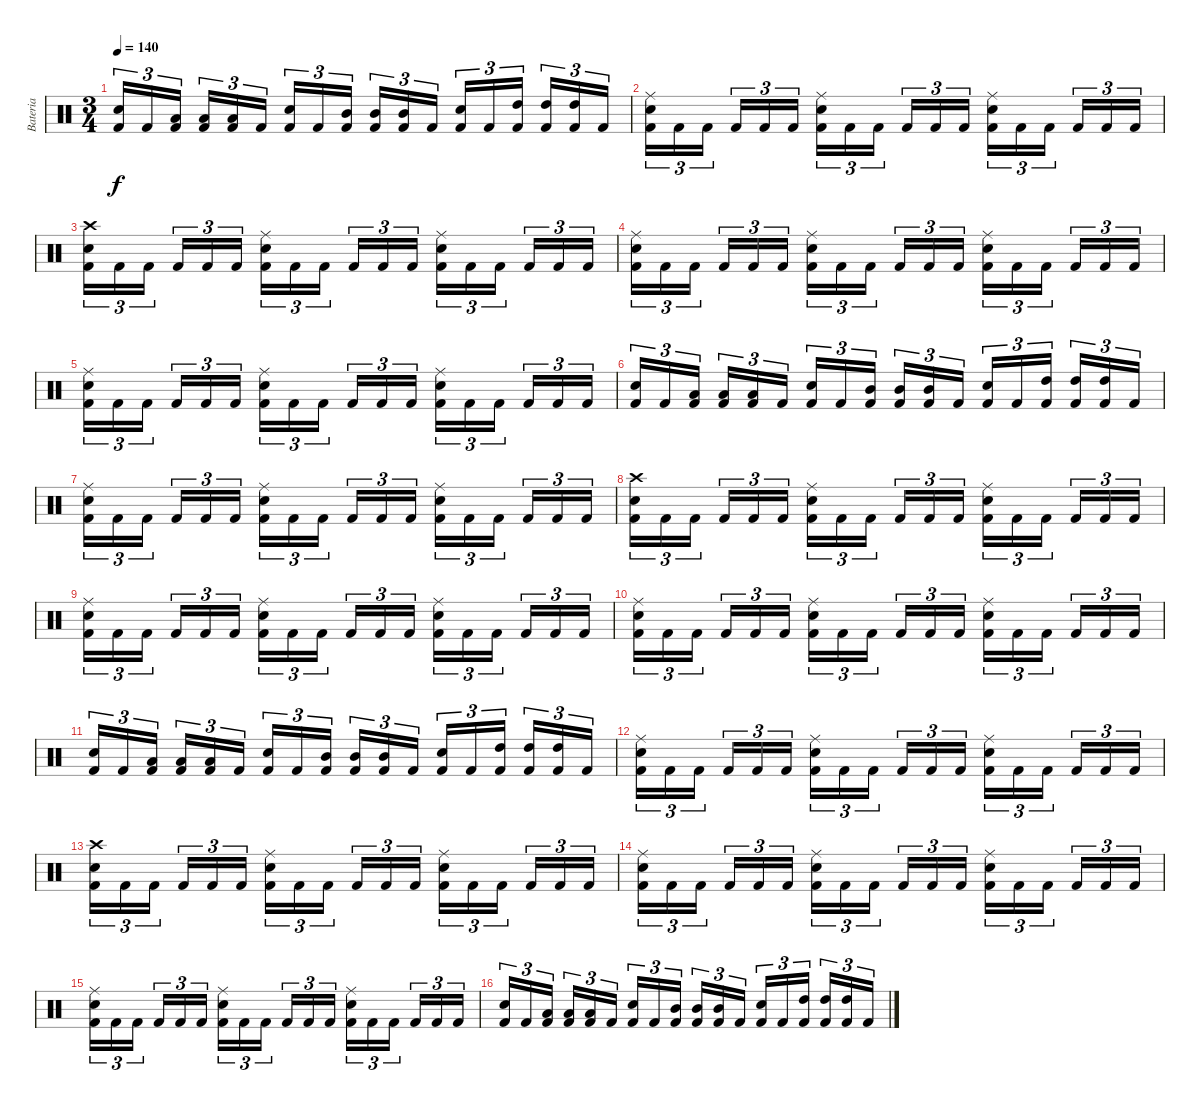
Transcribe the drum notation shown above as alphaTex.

\track ("Bateria" "Bateria") {instrument percussion}
\staff {score}
\articulation defaults
\ts (3 4)
\tempo 140
\clef neutral
\ks c
("Kick (hit) 2" "Electric Snare (hit)").16{tu (3 2) dy f} "Kick (hit) 2".16{tu (3 2)} ("Kick (hit) 2" "Low Tom (hit)").16{tu (3 2)} ("Kick (hit) 2" "Low Tom (hit)").16{tu (3 2)} ("Kick (hit) 2" "Low Tom (hit)").16{tu (3 2)} "Kick (hit) 2".16{tu (3 2)} ("Kick (hit) 2" "Electric Snare (hit)").16{tu (3 2)} "Kick (hit) 2".16{tu (3 2)} ("Kick (hit) 2" "Mid Tom (hit)").16{tu (3 2)} ("Kick (hit) 2" "Mid Tom (hit)").16{tu (3 2)} ("Kick (hit) 2" "Mid Tom (hit)").16{tu (3 2)} "Kick (hit) 2".16{tu (3 2)} ("Kick (hit) 2" "Electric Snare (hit)").16{tu (3 2)} "Kick (hit) 2".16{tu (3 2)} ("Kick (hit) 2" "High Tom (hit)").16{tu (3 2)} ("Kick (hit) 2" "High Tom (hit)").16{tu (3 2)} ("Kick (hit) 2" "High Tom (hit)").16{tu (3 2)} "Kick (hit) 2".16{tu (3 2)} |
("Kick (hit) 2" "Electric Snare (hit)" "Ride (middle)").16{tu (3 2)} "Kick (hit) 2".16{tu (3 2)} "Kick (hit) 2".16{tu (3 2)} "Kick (hit) 2".16{tu (3 2)} "Kick (hit) 2".16{tu (3 2)} "Kick (hit) 2".16{tu (3 2)} ("Kick (hit) 2" "Electric Snare (hit)" "Ride (middle)").16{tu (3 2)} "Kick (hit) 2".16{tu (3 2)} "Kick (hit) 2".16{tu (3 2)} "Kick (hit) 2".16{tu (3 2)} "Kick (hit) 2".16{tu (3 2)} "Kick (hit) 2".16{tu (3 2)} ("Kick (hit) 2" "Electric Snare (hit)" "Ride (middle)").16{tu (3 2)} "Kick (hit) 2".16{tu (3 2)} "Kick (hit) 2".16{tu (3 2)} "Kick (hit) 2".16{tu (3 2)} "Kick (hit) 2".16{tu (3 2)} "Kick (hit) 2".16{tu (3 2)} |
("Kick (hit) 2" "Electric Snare (hit)" "Crash high (hit)").16{tu (3 2)} "Kick (hit) 2".16{tu (3 2)} "Kick (hit) 2".16{tu (3 2)} "Kick (hit) 2".16{tu (3 2)} "Kick (hit) 2".16{tu (3 2)} "Kick (hit) 2".16{tu (3 2)} ("Kick (hit) 2" "Electric Snare (hit)" "Ride (middle)").16{tu (3 2)} "Kick (hit) 2".16{tu (3 2)} "Kick (hit) 2".16{tu (3 2)} "Kick (hit) 2".16{tu (3 2)} "Kick (hit) 2".16{tu (3 2)} "Kick (hit) 2".16{tu (3 2)} ("Kick (hit) 2" "Electric Snare (hit)" "Ride (middle)").16{tu (3 2)} "Kick (hit) 2".16{tu (3 2)} "Kick (hit) 2".16{tu (3 2)} "Kick (hit) 2".16{tu (3 2)} "Kick (hit) 2".16{tu (3 2)} "Kick (hit) 2".16{tu (3 2)} |
("Kick (hit) 2" "Electric Snare (hit)" "Ride (middle)").16{tu (3 2)} "Kick (hit) 2".16{tu (3 2)} "Kick (hit) 2".16{tu (3 2)} "Kick (hit) 2".16{tu (3 2)} "Kick (hit) 2".16{tu (3 2)} "Kick (hit) 2".16{tu (3 2)} ("Kick (hit) 2" "Electric Snare (hit)" "Ride (middle)").16{tu (3 2)} "Kick (hit) 2".16{tu (3 2)} "Kick (hit) 2".16{tu (3 2)} "Kick (hit) 2".16{tu (3 2)} "Kick (hit) 2".16{tu (3 2)} "Kick (hit) 2".16{tu (3 2)} ("Kick (hit) 2" "Electric Snare (hit)" "Ride (middle)").16{tu (3 2)} "Kick (hit) 2".16{tu (3 2)} "Kick (hit) 2".16{tu (3 2)} "Kick (hit) 2".16{tu (3 2)} "Kick (hit) 2".16{tu (3 2)} "Kick (hit) 2".16{tu (3 2)} |
("Kick (hit) 2" "Electric Snare (hit)" "Ride (middle)").16{tu (3 2)} "Kick (hit) 2".16{tu (3 2)} "Kick (hit) 2".16{tu (3 2)} "Kick (hit) 2".16{tu (3 2)} "Kick (hit) 2".16{tu (3 2)} "Kick (hit) 2".16{tu (3 2)} ("Kick (hit) 2" "Electric Snare (hit)" "Ride (middle)").16{tu (3 2)} "Kick (hit) 2".16{tu (3 2)} "Kick (hit) 2".16{tu (3 2)} "Kick (hit) 2".16{tu (3 2)} "Kick (hit) 2".16{tu (3 2)} "Kick (hit) 2".16{tu (3 2)} ("Kick (hit) 2" "Electric Snare (hit)" "Ride (middle)").16{tu (3 2)} "Kick (hit) 2".16{tu (3 2)} "Kick (hit) 2".16{tu (3 2)} "Kick (hit) 2".16{tu (3 2)} "Kick (hit) 2".16{tu (3 2)} "Kick (hit) 2".16{tu (3 2)} |
("Kick (hit) 2" "Electric Snare (hit)").16{tu (3 2)} "Kick (hit) 2".16{tu (3 2)} ("Kick (hit) 2" "Low Tom (hit)").16{tu (3 2)} ("Kick (hit) 2" "Low Tom (hit)").16{tu (3 2)} ("Kick (hit) 2" "Low Tom (hit)").16{tu (3 2)} "Kick (hit) 2".16{tu (3 2)} ("Kick (hit) 2" "Electric Snare (hit)").16{tu (3 2)} "Kick (hit) 2".16{tu (3 2)} ("Kick (hit) 2" "Mid Tom (hit)").16{tu (3 2)} ("Kick (hit) 2" "Mid Tom (hit)").16{tu (3 2)} ("Kick (hit) 2" "Mid Tom (hit)").16{tu (3 2)} "Kick (hit) 2".16{tu (3 2)} ("Kick (hit) 2" "Electric Snare (hit)").16{tu (3 2)} "Kick (hit) 2".16{tu (3 2)} ("Kick (hit) 2" "High Tom (hit)").16{tu (3 2)} ("Kick (hit) 2" "High Tom (hit)").16{tu (3 2)} ("Kick (hit) 2" "High Tom (hit)").16{tu (3 2)} "Kick (hit) 2".16{tu (3 2)} |
("Kick (hit) 2" "Electric Snare (hit)" "Ride (middle)").16{tu (3 2)} "Kick (hit) 2".16{tu (3 2)} "Kick (hit) 2".16{tu (3 2)} "Kick (hit) 2".16{tu (3 2)} "Kick (hit) 2".16{tu (3 2)} "Kick (hit) 2".16{tu (3 2)} ("Kick (hit) 2" "Electric Snare (hit)" "Ride (middle)").16{tu (3 2)} "Kick (hit) 2".16{tu (3 2)} "Kick (hit) 2".16{tu (3 2)} "Kick (hit) 2".16{tu (3 2)} "Kick (hit) 2".16{tu (3 2)} "Kick (hit) 2".16{tu (3 2)} ("Kick (hit) 2" "Electric Snare (hit)" "Ride (middle)").16{tu (3 2)} "Kick (hit) 2".16{tu (3 2)} "Kick (hit) 2".16{tu (3 2)} "Kick (hit) 2".16{tu (3 2)} "Kick (hit) 2".16{tu (3 2)} "Kick (hit) 2".16{tu (3 2)} |
("Kick (hit) 2" "Electric Snare (hit)" "Crash high (hit)").16{tu (3 2)} "Kick (hit) 2".16{tu (3 2)} "Kick (hit) 2".16{tu (3 2)} "Kick (hit) 2".16{tu (3 2)} "Kick (hit) 2".16{tu (3 2)} "Kick (hit) 2".16{tu (3 2)} ("Kick (hit) 2" "Electric Snare (hit)" "Ride (middle)").16{tu (3 2)} "Kick (hit) 2".16{tu (3 2)} "Kick (hit) 2".16{tu (3 2)} "Kick (hit) 2".16{tu (3 2)} "Kick (hit) 2".16{tu (3 2)} "Kick (hit) 2".16{tu (3 2)} ("Kick (hit) 2" "Electric Snare (hit)" "Ride (middle)").16{tu (3 2)} "Kick (hit) 2".16{tu (3 2)} "Kick (hit) 2".16{tu (3 2)} "Kick (hit) 2".16{tu (3 2)} "Kick (hit) 2".16{tu (3 2)} "Kick (hit) 2".16{tu (3 2)} |
("Kick (hit) 2" "Electric Snare (hit)" "Ride (middle)").16{tu (3 2)} "Kick (hit) 2".16{tu (3 2)} "Kick (hit) 2".16{tu (3 2)} "Kick (hit) 2".16{tu (3 2)} "Kick (hit) 2".16{tu (3 2)} "Kick (hit) 2".16{tu (3 2)} ("Kick (hit) 2" "Electric Snare (hit)" "Ride (middle)").16{tu (3 2)} "Kick (hit) 2".16{tu (3 2)} "Kick (hit) 2".16{tu (3 2)} "Kick (hit) 2".16{tu (3 2)} "Kick (hit) 2".16{tu (3 2)} "Kick (hit) 2".16{tu (3 2)} ("Kick (hit) 2" "Electric Snare (hit)" "Ride (middle)").16{tu (3 2)} "Kick (hit) 2".16{tu (3 2)} "Kick (hit) 2".16{tu (3 2)} "Kick (hit) 2".16{tu (3 2)} "Kick (hit) 2".16{tu (3 2)} "Kick (hit) 2".16{tu (3 2)} |
("Kick (hit) 2" "Electric Snare (hit)" "Ride (middle)").16{tu (3 2)} "Kick (hit) 2".16{tu (3 2)} "Kick (hit) 2".16{tu (3 2)} "Kick (hit) 2".16{tu (3 2)} "Kick (hit) 2".16{tu (3 2)} "Kick (hit) 2".16{tu (3 2)} ("Kick (hit) 2" "Electric Snare (hit)" "Ride (middle)").16{tu (3 2)} "Kick (hit) 2".16{tu (3 2)} "Kick (hit) 2".16{tu (3 2)} "Kick (hit) 2".16{tu (3 2)} "Kick (hit) 2".16{tu (3 2)} "Kick (hit) 2".16{tu (3 2)} ("Kick (hit) 2" "Electric Snare (hit)" "Ride (middle)").16{tu (3 2)} "Kick (hit) 2".16{tu (3 2)} "Kick (hit) 2".16{tu (3 2)} "Kick (hit) 2".16{tu (3 2)} "Kick (hit) 2".16{tu (3 2)} "Kick (hit) 2".16{tu (3 2)} |
("Kick (hit) 2" "Electric Snare (hit)").16{tu (3 2)} "Kick (hit) 2".16{tu (3 2)} ("Kick (hit) 2" "Low Tom (hit)").16{tu (3 2)} ("Kick (hit) 2" "Low Tom (hit)").16{tu (3 2)} ("Kick (hit) 2" "Low Tom (hit)").16{tu (3 2)} "Kick (hit) 2".16{tu (3 2)} ("Kick (hit) 2" "Electric Snare (hit)").16{tu (3 2)} "Kick (hit) 2".16{tu (3 2)} ("Kick (hit) 2" "Mid Tom (hit)").16{tu (3 2)} ("Kick (hit) 2" "Mid Tom (hit)").16{tu (3 2)} ("Kick (hit) 2" "Mid Tom (hit)").16{tu (3 2)} "Kick (hit) 2".16{tu (3 2)} ("Kick (hit) 2" "Electric Snare (hit)").16{tu (3 2)} "Kick (hit) 2".16{tu (3 2)} ("Kick (hit) 2" "High Tom (hit)").16{tu (3 2)} ("Kick (hit) 2" "High Tom (hit)").16{tu (3 2)} ("Kick (hit) 2" "High Tom (hit)").16{tu (3 2)} "Kick (hit) 2".16{tu (3 2)} |
("Kick (hit) 2" "Electric Snare (hit)" "Ride (middle)").16{tu (3 2)} "Kick (hit) 2".16{tu (3 2)} "Kick (hit) 2".16{tu (3 2)} "Kick (hit) 2".16{tu (3 2)} "Kick (hit) 2".16{tu (3 2)} "Kick (hit) 2".16{tu (3 2)} ("Kick (hit) 2" "Electric Snare (hit)" "Ride (middle)").16{tu (3 2)} "Kick (hit) 2".16{tu (3 2)} "Kick (hit) 2".16{tu (3 2)} "Kick (hit) 2".16{tu (3 2)} "Kick (hit) 2".16{tu (3 2)} "Kick (hit) 2".16{tu (3 2)} ("Kick (hit) 2" "Electric Snare (hit)" "Ride (middle)").16{tu (3 2)} "Kick (hit) 2".16{tu (3 2)} "Kick (hit) 2".16{tu (3 2)} "Kick (hit) 2".16{tu (3 2)} "Kick (hit) 2".16{tu (3 2)} "Kick (hit) 2".16{tu (3 2)} |
("Kick (hit) 2" "Electric Snare (hit)" "Crash high (hit)").16{tu (3 2)} "Kick (hit) 2".16{tu (3 2)} "Kick (hit) 2".16{tu (3 2)} "Kick (hit) 2".16{tu (3 2)} "Kick (hit) 2".16{tu (3 2)} "Kick (hit) 2".16{tu (3 2)} ("Kick (hit) 2" "Electric Snare (hit)" "Ride (middle)").16{tu (3 2)} "Kick (hit) 2".16{tu (3 2)} "Kick (hit) 2".16{tu (3 2)} "Kick (hit) 2".16{tu (3 2)} "Kick (hit) 2".16{tu (3 2)} "Kick (hit) 2".16{tu (3 2)} ("Kick (hit) 2" "Electric Snare (hit)" "Ride (middle)").16{tu (3 2)} "Kick (hit) 2".16{tu (3 2)} "Kick (hit) 2".16{tu (3 2)} "Kick (hit) 2".16{tu (3 2)} "Kick (hit) 2".16{tu (3 2)} "Kick (hit) 2".16{tu (3 2)} |
("Kick (hit) 2" "Electric Snare (hit)" "Ride (middle)").16{tu (3 2)} "Kick (hit) 2".16{tu (3 2)} "Kick (hit) 2".16{tu (3 2)} "Kick (hit) 2".16{tu (3 2)} "Kick (hit) 2".16{tu (3 2)} "Kick (hit) 2".16{tu (3 2)} ("Kick (hit) 2" "Electric Snare (hit)" "Ride (middle)").16{tu (3 2)} "Kick (hit) 2".16{tu (3 2)} "Kick (hit) 2".16{tu (3 2)} "Kick (hit) 2".16{tu (3 2)} "Kick (hit) 2".16{tu (3 2)} "Kick (hit) 2".16{tu (3 2)} ("Kick (hit) 2" "Electric Snare (hit)" "Ride (middle)").16{tu (3 2)} "Kick (hit) 2".16{tu (3 2)} "Kick (hit) 2".16{tu (3 2)} "Kick (hit) 2".16{tu (3 2)} "Kick (hit) 2".16{tu (3 2)} "Kick (hit) 2".16{tu (3 2)} |
("Kick (hit) 2" "Electric Snare (hit)" "Ride (middle)").16{tu (3 2)} "Kick (hit) 2".16{tu (3 2)} "Kick (hit) 2".16{tu (3 2)} "Kick (hit) 2".16{tu (3 2)} "Kick (hit) 2".16{tu (3 2)} "Kick (hit) 2".16{tu (3 2)} ("Kick (hit) 2" "Electric Snare (hit)" "Ride (middle)").16{tu (3 2)} "Kick (hit) 2".16{tu (3 2)} "Kick (hit) 2".16{tu (3 2)} "Kick (hit) 2".16{tu (3 2)} "Kick (hit) 2".16{tu (3 2)} "Kick (hit) 2".16{tu (3 2)} ("Kick (hit) 2" "Electric Snare (hit)" "Ride (middle)").16{tu (3 2)} "Kick (hit) 2".16{tu (3 2)} "Kick (hit) 2".16{tu (3 2)} "Kick (hit) 2".16{tu (3 2)} "Kick (hit) 2".16{tu (3 2)} "Kick (hit) 2".16{tu (3 2)} |
("Kick (hit) 2" "Electric Snare (hit)").16{tu (3 2)} "Kick (hit) 2".16{tu (3 2)} ("Kick (hit) 2" "Low Tom (hit)").16{tu (3 2)} ("Kick (hit) 2" "Low Tom (hit)").16{tu (3 2)} ("Kick (hit) 2" "Low Tom (hit)").16{tu (3 2)} "Kick (hit) 2".16{tu (3 2)} ("Kick (hit) 2" "Electric Snare (hit)").16{tu (3 2)} "Kick (hit) 2".16{tu (3 2)} ("Kick (hit) 2" "Mid Tom (hit)").16{tu (3 2)} ("Kick (hit) 2" "Mid Tom (hit)").16{tu (3 2)} ("Kick (hit) 2" "Mid Tom (hit)").16{tu (3 2)} "Kick (hit) 2".16{tu (3 2)} ("Kick (hit) 2" "Electric Snare (hit)").16{tu (3 2)} "Kick (hit) 2".16{tu (3 2)} ("Kick (hit) 2" "High Tom (hit)").16{tu (3 2)} ("Kick (hit) 2" "High Tom (hit)").16{tu (3 2)} ("Kick (hit) 2" "High Tom (hit)").16{tu (3 2)} "Kick (hit) 2".16{tu (3 2)}
